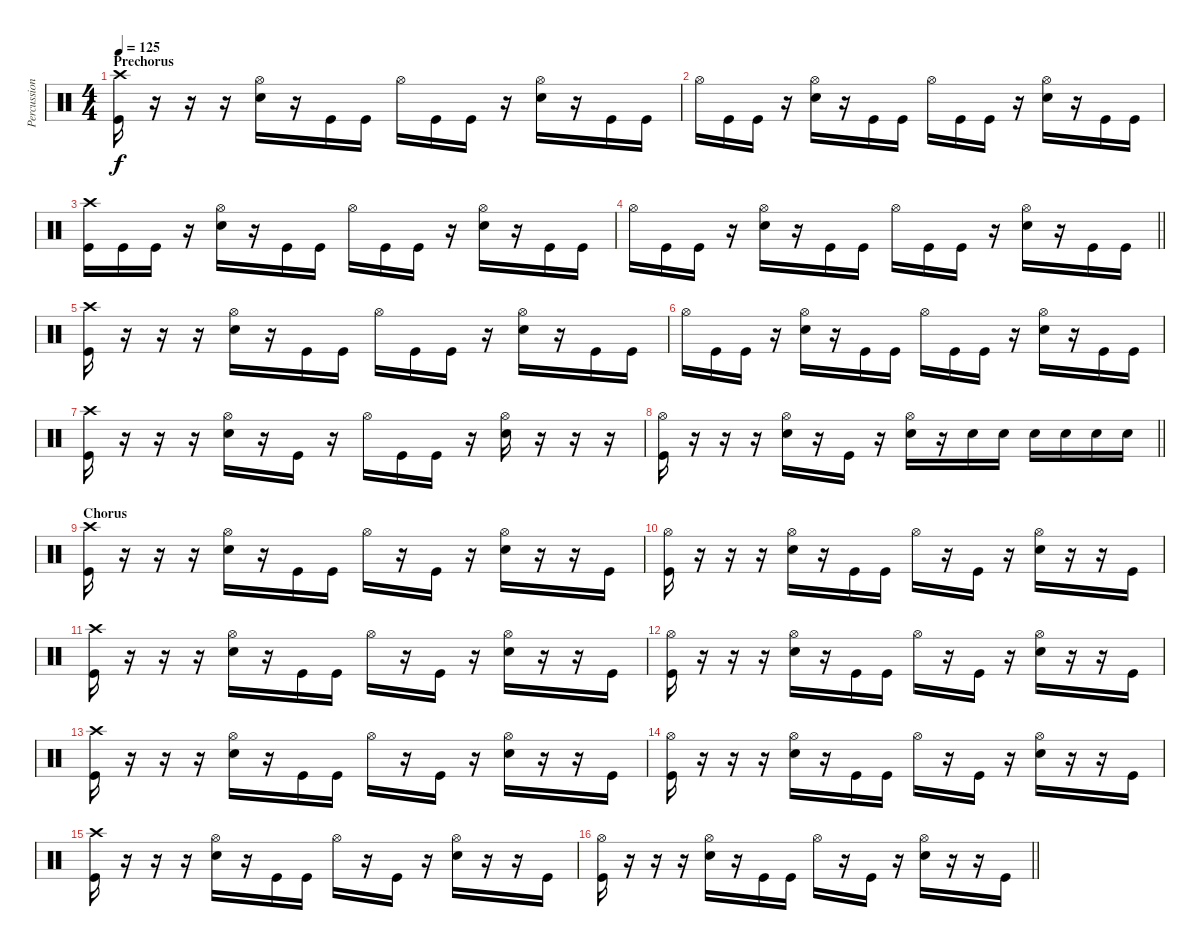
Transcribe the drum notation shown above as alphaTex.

\track ("Percussion" "Percussion") {instrument percussion}
\staff {score}
\articulation defaults
\ts (4 4)
\section ("" "Prechorus")
\tempo 125
\clef neutral
\ks c
("Crash high (hit)" "Kick (hit)").16{dy f} r.16 r.16 r.16 ("Hi-Hat (open)" "Electric Snare (hit)").16 r.16 "Kick (hit)".16 "Kick (hit)".16 "Hi-Hat (open)".16 "Kick (hit)".16 "Kick (hit)".16 r.16 ("Hi-Hat (open)" "Electric Snare (hit)").16 r.16 "Kick (hit)".16 "Kick (hit)".16 |
"Hi-Hat (open)".16 "Kick (hit)".16 "Kick (hit)".16 r.16 ("Hi-Hat (open)" "Electric Snare (hit)").16 r.16 "Kick (hit)".16 "Kick (hit)".16 "Hi-Hat (open)".16 "Kick (hit)".16 "Kick (hit)".16 r.16 ("Hi-Hat (open)" "Electric Snare (hit)").16 r.16 "Kick (hit)".16 "Kick (hit)".16 |
("Crash high (hit)" "Kick (hit)").16 "Kick (hit)".16 "Kick (hit)".16 r.16 ("Hi-Hat (open)" "Electric Snare (hit)").16 r.16 "Kick (hit)".16 "Kick (hit)".16 "Hi-Hat (open)".16 "Kick (hit)".16 "Kick (hit)".16 r.16 ("Hi-Hat (open)" "Electric Snare (hit)").16 r.16 "Kick (hit)".16 "Kick (hit)".16 |
\barLineRight lightlight "Hi-Hat (open)".16 "Kick (hit)".16 "Kick (hit)".16
r.16 ("Hi-Hat (open)" "Electric Snare (hit)").16 r.16 "Kick (hit)".16 "Kick (hit)".16 "Hi-Hat (open)".16 "Kick (hit)".16 "Kick (hit)".16 r.16 ("Hi-Hat (open)" "Electric Snare (hit)").16 r.16 "Kick (hit)".16 "Kick (hit)".16 |
("Crash high (hit)" "Kick (hit)").16 r.16 r.16 r.16 ("Hi-Hat (open)" "Electric Snare (hit)").16 r.16 "Kick (hit)".16 "Kick (hit)".16 "Hi-Hat (open)".16 "Kick (hit)".16 "Kick (hit)".16 r.16 ("Hi-Hat (open)" "Electric Snare (hit)").16 r.16 "Kick (hit)".16 "Kick (hit)".16 |
"Hi-Hat (open)".16 "Kick (hit)".16 "Kick (hit)".16 r.16 ("Hi-Hat (open)" "Electric Snare (hit)").16 r.16 "Kick (hit)".16 "Kick (hit)".16 "Hi-Hat (open)".16 "Kick (hit)".16 "Kick (hit)".16 r.16 ("Hi-Hat (open)" "Electric Snare (hit)").16 r.16 "Kick (hit)".16 "Kick (hit)".16 |
("Crash high (hit)" "Kick (hit)").16 r.16 r.16 r.16 ("Hi-Hat (open)" "Electric Snare (hit)").16 r.16 "Kick (hit)".16 r.16 "Hi-Hat (open)".16 "Kick (hit)".16 "Kick (hit)".16 r.16 ("Hi-Hat (open)" "Electric Snare (hit)").16 r.16 r.16 r.16 |
\barLineRight lightlight
("Hi-Hat (open)" "Kick (hit)").16 r.16 r.16 r.16 ("Hi-Hat (open)" "Electric Snare (hit)").16 r.16 "Kick (hit)".16 r.16 ("Hi-Hat (open)" "Electric Snare (hit)").16 r.16 "Electric Snare (hit)".16 "Electric Snare (hit)".16 "Electric Snare (hit)".16 "Electric Snare (hit)".16 "Electric Snare (hit)".16 "Electric Snare (hit)".16 |
\section ("" "Chorus")
("Crash high (hit)" "Kick (hit)").16 r.16 r.16 r.16 ("Hi-Hat (open)" "Electric Snare (hit)").16 r.16 "Kick (hit)".16 "Kick (hit)".16 "Hi-Hat (open)".16 r.16 "Kick (hit)".16 r.16 ("Hi-Hat (open)" "Electric Snare (hit)").16 r.16 r.16 "Kick (hit)".16 |
("Hi-Hat (open)" "Kick (hit)").16 r.16 r.16 r.16 ("Hi-Hat (open)" "Electric Snare (hit)").16 r.16 "Kick (hit)".16 "Kick (hit)".16 "Hi-Hat (open)".16 r.16 "Kick (hit)".16 r.16 ("Hi-Hat (open)" "Electric Snare (hit)").16 r.16 r.16 "Kick (hit)".16 |
("Crash high (hit)" "Kick (hit)").16 r.16 r.16 r.16 ("Hi-Hat (open)" "Electric Snare (hit)").16 r.16 "Kick (hit)".16 "Kick (hit)".16 "Hi-Hat (open)".16 r.16 "Kick (hit)".16 r.16 ("Hi-Hat (open)" "Electric Snare (hit)").16 r.16 r.16 "Kick (hit)".16 |
("Hi-Hat (open)" "Kick (hit)").16 r.16 r.16 r.16 ("Hi-Hat (open)" "Electric Snare (hit)").16 r.16 "Kick (hit)".16 "Kick (hit)".16 "Hi-Hat (open)".16 r.16 "Kick (hit)".16 r.16 ("Hi-Hat (open)" "Electric Snare (hit)").16 r.16 r.16 "Kick (hit)".16 |
("Crash high (hit)" "Kick (hit)").16 r.16 r.16 r.16 ("Hi-Hat (open)" "Electric Snare (hit)").16 r.16 "Kick (hit)".16 "Kick (hit)".16 "Hi-Hat (open)".16 r.16 "Kick (hit)".16 r.16 ("Hi-Hat (open)" "Electric Snare (hit)").16 r.16 r.16 "Kick (hit)".16 |
("Hi-Hat (open)" "Kick (hit)").16 r.16 r.16 r.16 ("Hi-Hat (open)" "Electric Snare (hit)").16 r.16 "Kick (hit)".16 "Kick (hit)".16 "Hi-Hat (open)".16 r.16 "Kick (hit)".16 r.16 ("Hi-Hat (open)" "Electric Snare (hit)").16 r.16 r.16 "Kick (hit)".16 |
("Crash high (hit)" "Kick (hit)").16 r.16 r.16 r.16 ("Hi-Hat (open)" "Electric Snare (hit)").16 r.16 "Kick (hit)".16 "Kick (hit)".16 "Hi-Hat (open)".16 r.16 "Kick (hit)".16 r.16 ("Hi-Hat (open)" "Electric Snare (hit)").16 r.16 r.16 "Kick (hit)".16 |
\barLineRight lightlight
("Hi-Hat (open)" "Kick (hit)").16 r.16 r.16 r.16 ("Hi-Hat (open)" "Electric Snare (hit)").16 r.16 "Kick (hit)".16 "Kick (hit)".16 "Hi-Hat (open)".16 r.16 "Kick (hit)".16 r.16 ("Hi-Hat (open)" "Electric Snare (hit)").16 r.16 r.16 "Kick (hit)".16
